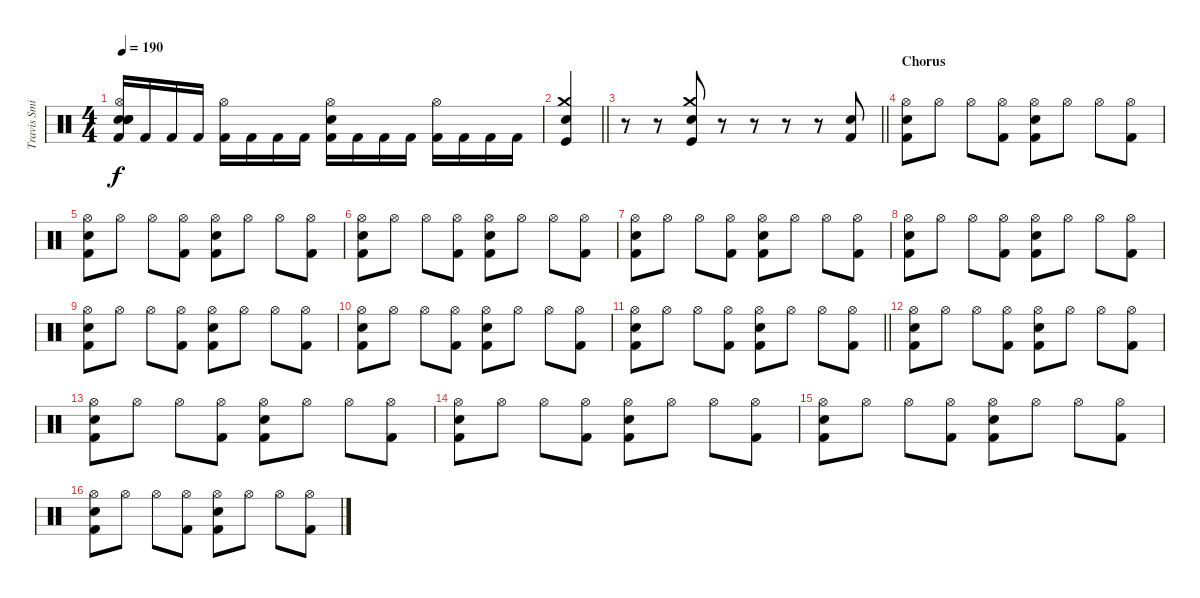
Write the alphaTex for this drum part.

\track ("Travis Smith" "Travis Smi") {instrument percussion}
\staff {score}
\articulation defaults
\ts (4 4)
\tempo 190
\clef neutral
\ks c
("Snare (hit)"{t} "Hi-Hat (open)" "Electric Snare (hit)" "Snare (hit)" "Kick (hit) 2").16{dy f} "Kick (hit) 2".16 "Kick (hit) 2".16 "Kick (hit) 2".16 ("Hi-Hat (open)" "Kick (hit) 2").16 "Kick (hit) 2".16 "Kick (hit) 2".16 "Kick (hit) 2".16 ("Hi-Hat (open)" "Electric Snare (hit)" "Kick (hit) 2").16 "Kick (hit) 2".16 "Kick (hit) 2".16 "Kick (hit) 2".16 ("Hi-Hat (open)" "Kick (hit) 2").16 "Kick (hit) 2".16 "Kick (hit) 2".16 "Kick (hit) 2".16 |
\barLineRight lightlight
("Crash medium (hit)" "Electric Snare (hit)" "Kick (hit)").4 |
\barLineRight lightlight
r.8 r.8 ("Crash medium (hit)" "Electric Snare (hit)" "Kick (hit)").8 r.8 r.8 r.8 r.8 ("Electric Snare (hit)" "Kick (hit) 2").8 |
\section ("" "Chorus")
("Hi-Hat (open)" "Electric Snare (hit)" "Kick (hit) 2").8 "Hi-Hat (open)".8 "Hi-Hat (open)".8 ("Hi-Hat (open)" "Kick (hit) 2").8 ("Hi-Hat (open)" "Electric Snare (hit)" "Kick (hit) 2").8 "Hi-Hat (open)".8 "Hi-Hat (open)".8 ("Hi-Hat (open)" "Kick (hit) 2").8 |
("Hi-Hat (open)" "Electric Snare (hit)" "Kick (hit) 2").8 "Hi-Hat (open)".8 "Hi-Hat (open)".8 ("Hi-Hat (open)" "Kick (hit) 2").8 ("Hi-Hat (open)" "Electric Snare (hit)" "Kick (hit) 2").8 "Hi-Hat (open)".8 "Hi-Hat (open)".8 ("Hi-Hat (open)" "Kick (hit) 2").8 |
("Hi-Hat (open)" "Electric Snare (hit)" "Kick (hit) 2").8 "Hi-Hat (open)".8 "Hi-Hat (open)".8 ("Hi-Hat (open)" "Kick (hit) 2").8 ("Hi-Hat (open)" "Electric Snare (hit)" "Kick (hit) 2").8 "Hi-Hat (open)".8 "Hi-Hat (open)".8 ("Hi-Hat (open)" "Kick (hit) 2").8 |
("Hi-Hat (open)" "Electric Snare (hit)" "Kick (hit) 2").8 "Hi-Hat (open)".8 "Hi-Hat (open)".8 ("Hi-Hat (open)" "Kick (hit) 2").8 ("Hi-Hat (open)" "Electric Snare (hit)" "Kick (hit) 2").8 "Hi-Hat (open)".8 "Hi-Hat (open)".8 ("Hi-Hat (open)" "Kick (hit) 2").8 |
("Hi-Hat (open)" "Electric Snare (hit)" "Kick (hit) 2").8 "Hi-Hat (open)".8 "Hi-Hat (open)".8 ("Hi-Hat (open)" "Kick (hit) 2").8 ("Hi-Hat (open)" "Electric Snare (hit)" "Kick (hit) 2").8 "Hi-Hat (open)".8 "Hi-Hat (open)".8 ("Hi-Hat (open)" "Kick (hit) 2").8 |
("Hi-Hat (open)" "Electric Snare (hit)" "Kick (hit) 2").8 "Hi-Hat (open)".8 "Hi-Hat (open)".8 ("Hi-Hat (open)" "Kick (hit) 2").8 ("Hi-Hat (open)" "Electric Snare (hit)" "Kick (hit) 2").8 "Hi-Hat (open)".8 "Hi-Hat (open)".8 ("Hi-Hat (open)" "Kick (hit) 2").8 |
("Hi-Hat (open)" "Electric Snare (hit)" "Kick (hit) 2").8 "Hi-Hat (open)".8 "Hi-Hat (open)".8 ("Hi-Hat (open)" "Kick (hit) 2").8 ("Hi-Hat (open)" "Electric Snare (hit)" "Kick (hit) 2").8 "Hi-Hat (open)".8 "Hi-Hat (open)".8 ("Hi-Hat (open)" "Kick (hit) 2").8 |
\barLineRight lightlight
("Hi-Hat (open)" "Electric Snare (hit)" "Kick (hit) 2").8 "Hi-Hat (open)".8 "Hi-Hat (open)".8 ("Hi-Hat (open)" "Kick (hit) 2").8 ("Hi-Hat (open)" "Electric Snare (hit)" "Kick (hit) 2").8 "Hi-Hat (open)".8 "Hi-Hat (open)".8 ("Hi-Hat (open)" "Kick (hit) 2").8 |
("Hi-Hat (open)" "Electric Snare (hit)" "Kick (hit) 2").8 "Hi-Hat (open)".8 "Hi-Hat (open)".8 ("Hi-Hat (open)" "Kick (hit) 2").8 ("Hi-Hat (open)" "Electric Snare (hit)" "Kick (hit) 2").8 "Hi-Hat (open)".8 "Hi-Hat (open)".8 ("Hi-Hat (open)" "Kick (hit) 2").8 |
("Hi-Hat (open)" "Electric Snare (hit)" "Kick (hit) 2").8 "Hi-Hat (open)".8 "Hi-Hat (open)".8 ("Hi-Hat (open)" "Kick (hit) 2").8 ("Hi-Hat (open)" "Electric Snare (hit)" "Kick (hit) 2").8 "Hi-Hat (open)".8 "Hi-Hat (open)".8 ("Hi-Hat (open)" "Kick (hit) 2").8 |
("Hi-Hat (open)" "Electric Snare (hit)" "Kick (hit) 2").8 "Hi-Hat (open)".8 "Hi-Hat (open)".8 ("Hi-Hat (open)" "Kick (hit) 2").8 ("Hi-Hat (open)" "Electric Snare (hit)" "Kick (hit) 2").8 "Hi-Hat (open)".8 "Hi-Hat (open)".8 ("Hi-Hat (open)" "Kick (hit) 2").8 |
("Hi-Hat (open)" "Electric Snare (hit)" "Kick (hit) 2").8 "Hi-Hat (open)".8 "Hi-Hat (open)".8 ("Hi-Hat (open)" "Kick (hit) 2").8 ("Hi-Hat (open)" "Electric Snare (hit)" "Kick (hit) 2").8 "Hi-Hat (open)".8 "Hi-Hat (open)".8 ("Hi-Hat (open)" "Kick (hit) 2").8 |
("Hi-Hat (open)" "Electric Snare (hit)" "Kick (hit) 2").8 "Hi-Hat (open)".8 "Hi-Hat (open)".8 ("Hi-Hat (open)" "Kick (hit) 2").8 ("Hi-Hat (open)" "Electric Snare (hit)" "Kick (hit) 2").8 "Hi-Hat (open)".8 "Hi-Hat (open)".8 ("Hi-Hat (open)" "Kick (hit) 2").8
